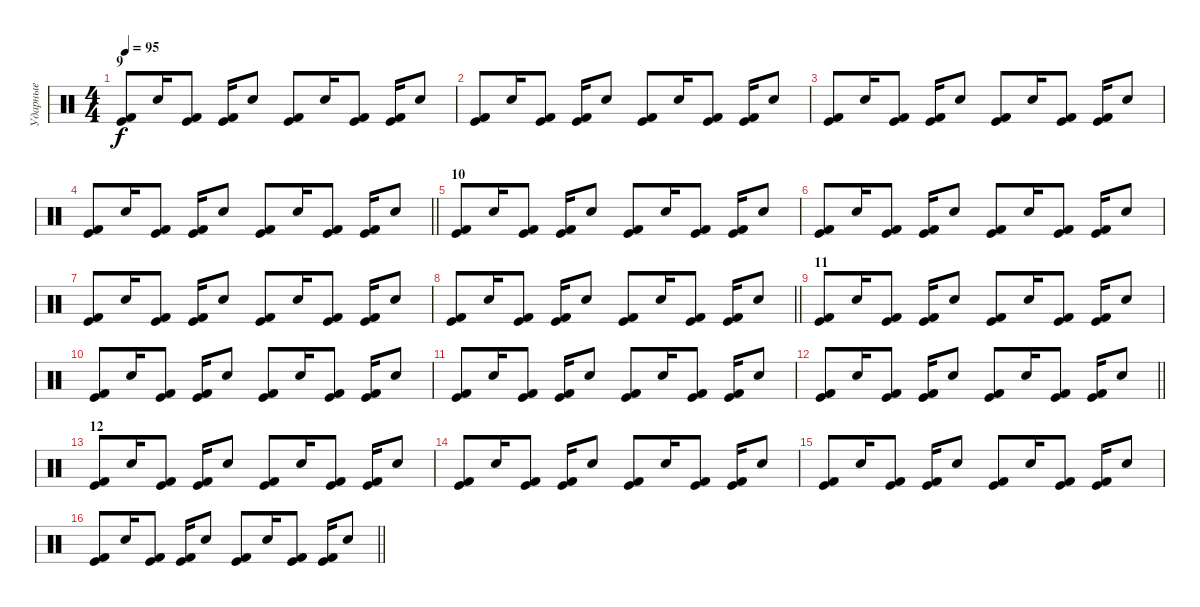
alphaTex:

\track ("Ударные" "Ударные") {instrument percussion}
\staff {score}
\articulation defaults
\ts (4 4)
\section ("" "9")
\tempo 95
\clef neutral
\ks c
("Kick (hit) 2" "Kick (hit)").8{dy f} "Electric Snare (hit)".16 ("Kick (hit) 2" "Kick (hit)").8 ("Kick (hit) 2" "Kick (hit)").16 "Electric Snare (hit)".8 ("Kick (hit) 2" "Kick (hit)").8 "Electric Snare (hit)".16 ("Kick (hit) 2" "Kick (hit)").8 ("Kick (hit) 2" "Kick (hit)").16 "Electric Snare (hit)".8 |
("Kick (hit) 2" "Kick (hit)").8 "Electric Snare (hit)".16 ("Kick (hit) 2" "Kick (hit)").8 ("Kick (hit) 2" "Kick (hit)").16 "Electric Snare (hit)".8 ("Kick (hit) 2" "Kick (hit)").8 "Electric Snare (hit)".16 ("Kick (hit) 2" "Kick (hit)").8 ("Kick (hit) 2" "Kick (hit)").16 "Electric Snare (hit)".8 |
("Kick (hit) 2" "Kick (hit)").8 "Electric Snare (hit)".16 ("Kick (hit) 2" "Kick (hit)").8 ("Kick (hit) 2" "Kick (hit)").16 "Electric Snare (hit)".8 ("Kick (hit) 2" "Kick (hit)").8 "Electric Snare (hit)".16 ("Kick (hit) 2" "Kick (hit)").8 ("Kick (hit) 2" "Kick (hit)").16 "Electric Snare (hit)".8 |
\barLineRight lightlight
("Kick (hit) 2" "Kick (hit)").8 "Electric Snare (hit)".16 ("Kick (hit) 2" "Kick (hit)").8 ("Kick (hit) 2" "Kick (hit)").16 "Electric Snare (hit)".8 ("Kick (hit) 2" "Kick (hit)").8 "Electric Snare (hit)".16 ("Kick (hit) 2" "Kick (hit)").8 ("Kick (hit) 2" "Kick (hit)").16 "Electric Snare (hit)".8 |
\section ("" "10")
("Kick (hit) 2" "Kick (hit)").8 "Electric Snare (hit)".16 ("Kick (hit) 2" "Kick (hit)").8 ("Kick (hit) 2" "Kick (hit)").16 "Electric Snare (hit)".8 ("Kick (hit) 2" "Kick (hit)").8 "Electric Snare (hit)".16 ("Kick (hit) 2" "Kick (hit)").8 ("Kick (hit) 2" "Kick (hit)").16 "Electric Snare (hit)".8 |
("Kick (hit) 2" "Kick (hit)").8 "Electric Snare (hit)".16 ("Kick (hit) 2" "Kick (hit)").8 ("Kick (hit) 2" "Kick (hit)").16 "Electric Snare (hit)".8 ("Kick (hit) 2" "Kick (hit)").8 "Electric Snare (hit)".16 ("Kick (hit) 2" "Kick (hit)").8 ("Kick (hit) 2" "Kick (hit)").16 "Electric Snare (hit)".8 |
("Kick (hit) 2" "Kick (hit)").8 "Electric Snare (hit)".16 ("Kick (hit) 2" "Kick (hit)").8 ("Kick (hit) 2" "Kick (hit)").16 "Electric Snare (hit)".8 ("Kick (hit) 2" "Kick (hit)").8 "Electric Snare (hit)".16 ("Kick (hit) 2" "Kick (hit)").8 ("Kick (hit) 2" "Kick (hit)").16 "Electric Snare (hit)".8 |
\barLineRight lightlight
("Kick (hit) 2" "Kick (hit)").8 "Electric Snare (hit)".16 ("Kick (hit) 2" "Kick (hit)").8 ("Kick (hit) 2" "Kick (hit)").16 "Electric Snare (hit)".8 ("Kick (hit) 2" "Kick (hit)").8 "Electric Snare (hit)".16 ("Kick (hit) 2" "Kick (hit)").8 ("Kick (hit) 2" "Kick (hit)").16 "Electric Snare (hit)".8 |
\section ("" "11")
("Kick (hit) 2" "Kick (hit)").8 "Electric Snare (hit)".16 ("Kick (hit) 2" "Kick (hit)").8 ("Kick (hit) 2" "Kick (hit)").16 "Electric Snare (hit)".8 ("Kick (hit) 2" "Kick (hit)").8 "Electric Snare (hit)".16 ("Kick (hit) 2" "Kick (hit)").8 ("Kick (hit) 2" "Kick (hit)").16 "Electric Snare (hit)".8 |
("Kick (hit) 2" "Kick (hit)").8 "Electric Snare (hit)".16 ("Kick (hit) 2" "Kick (hit)").8 ("Kick (hit) 2" "Kick (hit)").16 "Electric Snare (hit)".8 ("Kick (hit) 2" "Kick (hit)").8 "Electric Snare (hit)".16 ("Kick (hit) 2" "Kick (hit)").8 ("Kick (hit) 2" "Kick (hit)").16 "Electric Snare (hit)".8 |
("Kick (hit) 2" "Kick (hit)").8 "Electric Snare (hit)".16 ("Kick (hit) 2" "Kick (hit)").8 ("Kick (hit) 2" "Kick (hit)").16 "Electric Snare (hit)".8 ("Kick (hit) 2" "Kick (hit)").8 "Electric Snare (hit)".16 ("Kick (hit) 2" "Kick (hit)").8 ("Kick (hit) 2" "Kick (hit)").16 "Electric Snare (hit)".8 |
\barLineRight lightlight
("Kick (hit) 2" "Kick (hit)").8 "Electric Snare (hit)".16 ("Kick (hit) 2" "Kick (hit)").8 ("Kick (hit) 2" "Kick (hit)").16 "Electric Snare (hit)".8 ("Kick (hit) 2" "Kick (hit)").8 "Electric Snare (hit)".16 ("Kick (hit) 2" "Kick (hit)").8 ("Kick (hit) 2" "Kick (hit)").16 "Electric Snare (hit)".8 |
\section ("" "12")
("Kick (hit) 2" "Kick (hit)").8 "Electric Snare (hit)".16 ("Kick (hit) 2" "Kick (hit)").8 ("Kick (hit) 2" "Kick (hit)").16 "Electric Snare (hit)".8 ("Kick (hit) 2" "Kick (hit)").8 "Electric Snare (hit)".16 ("Kick (hit) 2" "Kick (hit)").8 ("Kick (hit) 2" "Kick (hit)").16 "Electric Snare (hit)".8 |
("Kick (hit) 2" "Kick (hit)").8 "Electric Snare (hit)".16 ("Kick (hit) 2" "Kick (hit)").8 ("Kick (hit) 2" "Kick (hit)").16 "Electric Snare (hit)".8 ("Kick (hit) 2" "Kick (hit)").8 "Electric Snare (hit)".16 ("Kick (hit) 2" "Kick (hit)").8 ("Kick (hit) 2" "Kick (hit)").16 "Electric Snare (hit)".8 |
("Kick (hit) 2" "Kick (hit)").8 "Electric Snare (hit)".16 ("Kick (hit) 2" "Kick (hit)").8 ("Kick (hit) 2" "Kick (hit)").16 "Electric Snare (hit)".8 ("Kick (hit) 2" "Kick (hit)").8 "Electric Snare (hit)".16 ("Kick (hit) 2" "Kick (hit)").8 ("Kick (hit) 2" "Kick (hit)").16 "Electric Snare (hit)".8 |
\barLineRight lightlight
("Kick (hit) 2" "Kick (hit)").8 "Electric Snare (hit)".16 ("Kick (hit) 2" "Kick (hit)").8 ("Kick (hit) 2" "Kick (hit)").16 "Electric Snare (hit)".8 ("Kick (hit) 2" "Kick (hit)").8 "Electric Snare (hit)".16 ("Kick (hit) 2" "Kick (hit)").8 ("Kick (hit) 2" "Kick (hit)").16 "Electric Snare (hit)".8
